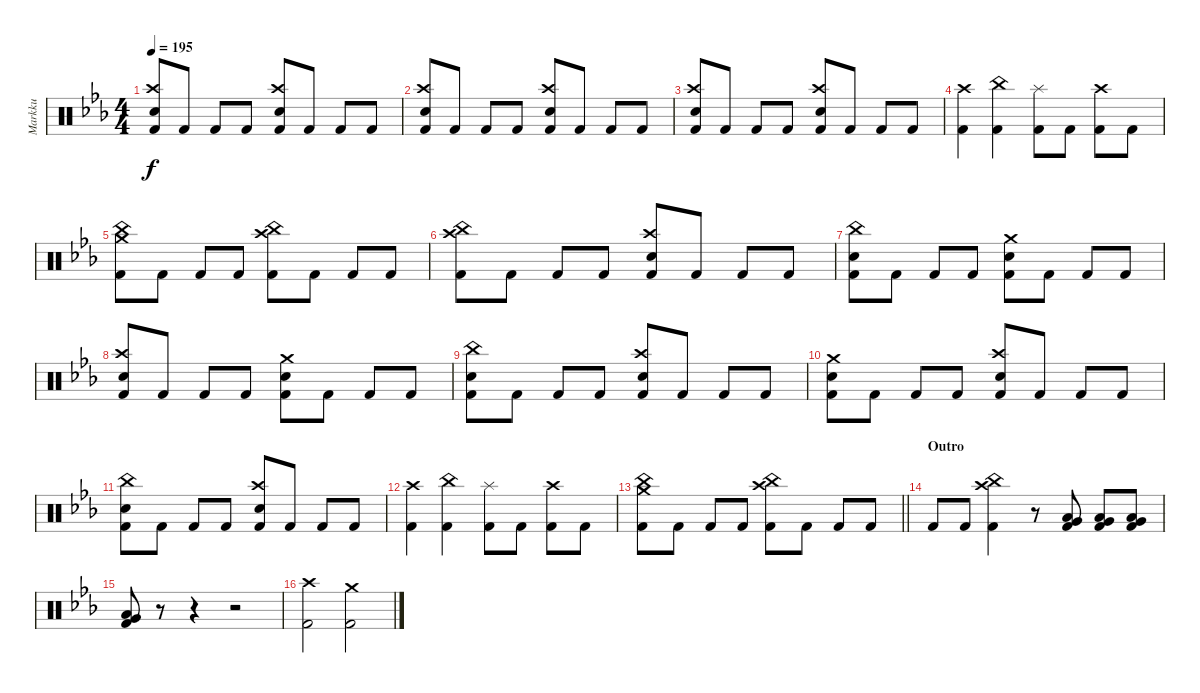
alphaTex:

\track ("Markku" "Markku") {instrument percussion}
\staff {score}
\articulation defaults
\ts (4 4)
\tempo 195
\clef neutral
\ks cminor
("Kick (hit) 2" "Crash high (hit)" "Snare (hit) 2").8{dy f} "Kick (hit) 2".8 "Kick (hit) 2".8 "Kick (hit) 2".8 ("Kick (hit) 2" "Crash high (hit)" "Snare (hit) 2").8 "Kick (hit) 2".8 "Kick (hit) 2".8 "Kick (hit) 2".8 |
("Kick (hit) 2" "Crash high (hit)" "Snare (hit) 2").8 "Kick (hit) 2".8 "Kick (hit) 2".8 "Kick (hit) 2".8 ("Kick (hit) 2" "Crash high (hit)" "Snare (hit) 2").8 "Kick (hit) 2".8 "Kick (hit) 2".8 "Kick (hit) 2".8 |
("Kick (hit) 2" "Crash high (hit)" "Snare (hit) 2").8 "Kick (hit) 2".8 "Kick (hit) 2".8 "Kick (hit) 2".8 ("Kick (hit) 2" "Crash high (hit)" "Snare (hit) 2").8 "Kick (hit) 2".8 "Kick (hit) 2".8 "Kick (hit) 2".8 |
("Kick (hit) 2" "Crash high (hit)").4 ("Kick (hit) 2" "China (hit)").4 ("Kick (hit) 2" "Splash (hit)").8 "Kick (hit) 2".8 ("Kick (hit) 2" "Crash high (hit)").8 "Kick (hit) 2".8 |
("China (hit)" "Kick (hit) 2" "Crash medium (hit)").8 "Kick (hit) 2".8 "Kick (hit) 2".8 "Kick (hit) 2".8 ("China (hit)" "Kick (hit) 2" "Crash high (hit)").8 "Kick (hit) 2".8 "Kick (hit) 2".8 "Kick (hit) 2".8 |
("Kick (hit) 2" "Crash high (hit)" "China (hit)").8 "Kick (hit) 2".8 "Kick (hit) 2".8 "Kick (hit) 2".8 ("Kick (hit) 2" "Crash high (hit)" "Snare (hit) 2").8 "Kick (hit) 2".8 "Kick (hit) 2".8 "Kick (hit) 2".8 |
("Kick (hit) 2" "China (hit)" "Snare (hit) 2").8 "Kick (hit) 2".8 "Kick (hit) 2".8 "Kick (hit) 2".8 ("Kick (hit) 2" "Crash medium (hit)" "Snare (hit) 2").8 "Kick (hit) 2".8 "Kick (hit) 2".8 "Kick (hit) 2".8 |
("Kick (hit) 2" "Crash high (hit)" "Snare (hit) 2").8 "Kick (hit) 2".8 "Kick (hit) 2".8 "Kick (hit) 2".8 ("Kick (hit) 2" "Crash medium (hit)" "Snare (hit) 2").8 "Kick (hit) 2".8 "Kick (hit) 2".8 "Kick (hit) 2".8 |
("Kick (hit) 2" "China (hit)" "Snare (hit) 2").8 "Kick (hit) 2".8 "Kick (hit) 2".8 "Kick (hit) 2".8 ("Kick (hit) 2" "Crash high (hit)" "Snare (hit) 2").8 "Kick (hit) 2".8 "Kick (hit) 2".8 "Kick (hit) 2".8 |
("Kick (hit) 2" "Crash medium (hit)" "Snare (hit) 2").8 "Kick (hit) 2".8 "Kick (hit) 2".8 "Kick (hit) 2".8 ("Kick (hit) 2" "Crash high (hit)" "Snare (hit) 2").8 "Kick (hit) 2".8 "Kick (hit) 2".8 "Kick (hit) 2".8 |
("Kick (hit) 2" "China (hit)" "Snare (hit) 2").8 "Kick (hit) 2".8 "Kick (hit) 2".8 "Kick (hit) 2".8 ("Kick (hit) 2" "Crash high (hit)" "Snare (hit) 2").8 "Kick (hit) 2".8 "Kick (hit) 2".8 "Kick (hit) 2".8 |
("Kick (hit) 2" "Crash high (hit)").4 ("Kick (hit) 2" "China (hit)").4 ("Kick (hit) 2" "Splash (hit)").8 "Kick (hit) 2".8 ("Kick (hit) 2" "Crash high (hit)").8 "Kick (hit) 2".8 |
\barLineRight lightlight
("China (hit)" "Kick (hit) 2" "Crash medium (hit)").8 "Kick (hit) 2".8 "Kick (hit) 2".8 "Kick (hit) 2".8 ("China (hit)" "Kick (hit) 2" "Crash high (hit)").8 "Kick (hit) 2".8 "Kick (hit) 2".8 "Kick (hit) 2".8 |
\section ("" "Outro")
"Kick (hit) 2".8 "Kick (hit) 2".8 ("Kick (hit) 2" "Crash high (hit)" "China (hit)").4 r.8 ("Kick (hit) 2" "Very Low Tom (hit)" "Low Tom (hit)").8 ("Kick (hit) 2" "Very Low Tom (hit)" "Low Tom (hit)").8 ("Kick (hit) 2" "Very Low Tom (hit)" "Low Tom (hit)").8 |
("Kick (hit) 2" "Very Low Tom (hit)" "Low Tom (hit)").8 r.8 r.4 r.2 |
("Kick (hit) 2" "Crash high (hit)").2 ("Kick (hit) 2" "Crash medium (hit)").2
